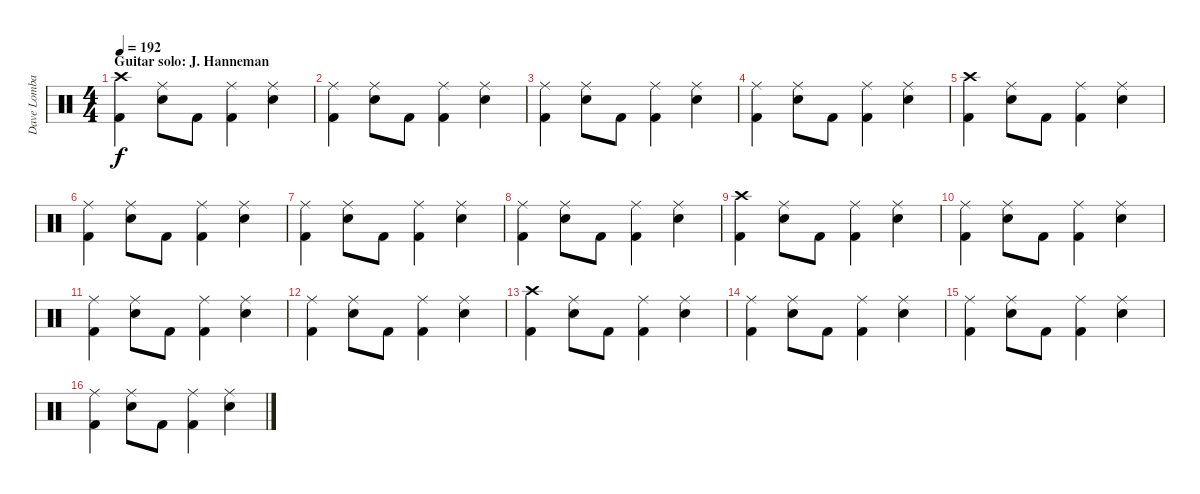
\track ("Dave Lombardo" "Dave Lomba") {instrument percussion}
\staff {score}
\articulation defaults
\ts (4 4)
\section ("" "Guitar solo: J. Hanneman")
\tempo 192
\clef neutral
\ks c
("Crash high (hit)" "Kick (hit) 2").4{dy f} ("Ride (middle)" "Electric Snare (hit)").8 "Kick (hit) 2".8 ("Ride (middle)" "Kick (hit) 2").4 ("Ride (middle)" "Electric Snare (hit)").4 |
("Ride (middle)" "Kick (hit) 2").4 ("Ride (middle)" "Electric Snare (hit)").8 "Kick (hit) 2".8 ("Ride (middle)" "Kick (hit) 2").4 ("Ride (middle)" "Electric Snare (hit)").4 |
("Ride (middle)" "Kick (hit) 2").4 ("Ride (middle)" "Electric Snare (hit)").8 "Kick (hit) 2".8 ("Ride (middle)" "Kick (hit) 2").4 ("Ride (middle)" "Electric Snare (hit)").4 |
("Ride (middle)" "Kick (hit) 2").4 ("Ride (middle)" "Electric Snare (hit)").8 "Kick (hit) 2".8 ("Ride (middle)" "Kick (hit) 2").4 ("Ride (middle)" "Electric Snare (hit)").4 |
("Crash high (hit)" "Kick (hit) 2").4 ("Ride (middle)" "Electric Snare (hit)").8 "Kick (hit) 2".8 ("Ride (middle)" "Kick (hit) 2").4 ("Ride (middle)" "Electric Snare (hit)").4 |
("Ride (middle)" "Kick (hit) 2").4 ("Ride (middle)" "Electric Snare (hit)").8 "Kick (hit) 2".8 ("Ride (middle)" "Kick (hit) 2").4 ("Ride (middle)" "Electric Snare (hit)").4 |
("Ride (middle)" "Kick (hit) 2").4 ("Ride (middle)" "Electric Snare (hit)").8 "Kick (hit) 2".8 ("Ride (middle)" "Kick (hit) 2").4 ("Ride (middle)" "Electric Snare (hit)").4 |
("Ride (middle)" "Kick (hit) 2").4 ("Ride (middle)" "Electric Snare (hit)").8 "Kick (hit) 2".8 ("Ride (middle)" "Kick (hit) 2").4 ("Ride (middle)" "Electric Snare (hit)").4 |
("Crash high (hit)" "Kick (hit) 2").4 ("Ride (middle)" "Electric Snare (hit)").8 "Kick (hit) 2".8 ("Ride (middle)" "Kick (hit) 2").4 ("Ride (middle)" "Electric Snare (hit)").4 |
("Ride (middle)" "Kick (hit) 2").4 ("Ride (middle)" "Electric Snare (hit)").8 "Kick (hit) 2".8 ("Ride (middle)" "Kick (hit) 2").4 ("Ride (middle)" "Electric Snare (hit)").4 |
("Ride (middle)" "Kick (hit) 2").4 ("Ride (middle)" "Electric Snare (hit)").8 "Kick (hit) 2".8 ("Ride (middle)" "Kick (hit) 2").4 ("Ride (middle)" "Electric Snare (hit)").4 |
("Ride (middle)" "Kick (hit) 2").4 ("Ride (middle)" "Electric Snare (hit)").8 "Kick (hit) 2".8 ("Ride (middle)" "Kick (hit) 2").4 ("Ride (middle)" "Electric Snare (hit)").4 |
("Crash high (hit)" "Kick (hit) 2").4 ("Ride (middle)" "Electric Snare (hit)").8 "Kick (hit) 2".8 ("Ride (middle)" "Kick (hit) 2").4 ("Ride (middle)" "Electric Snare (hit)").4 |
("Ride (middle)" "Kick (hit) 2").4 ("Ride (middle)" "Electric Snare (hit)").8 "Kick (hit) 2".8 ("Ride (middle)" "Kick (hit) 2").4 ("Ride (middle)" "Electric Snare (hit)").4 |
("Ride (middle)" "Kick (hit) 2").4 ("Ride (middle)" "Electric Snare (hit)").8 "Kick (hit) 2".8 ("Ride (middle)" "Kick (hit) 2").4 ("Ride (middle)" "Electric Snare (hit)").4 |
("Ride (middle)" "Kick (hit) 2").4 ("Ride (middle)" "Electric Snare (hit)").8 "Kick (hit) 2".8 ("Ride (middle)" "Kick (hit) 2").4 ("Ride (middle)" "Electric Snare (hit)").4
